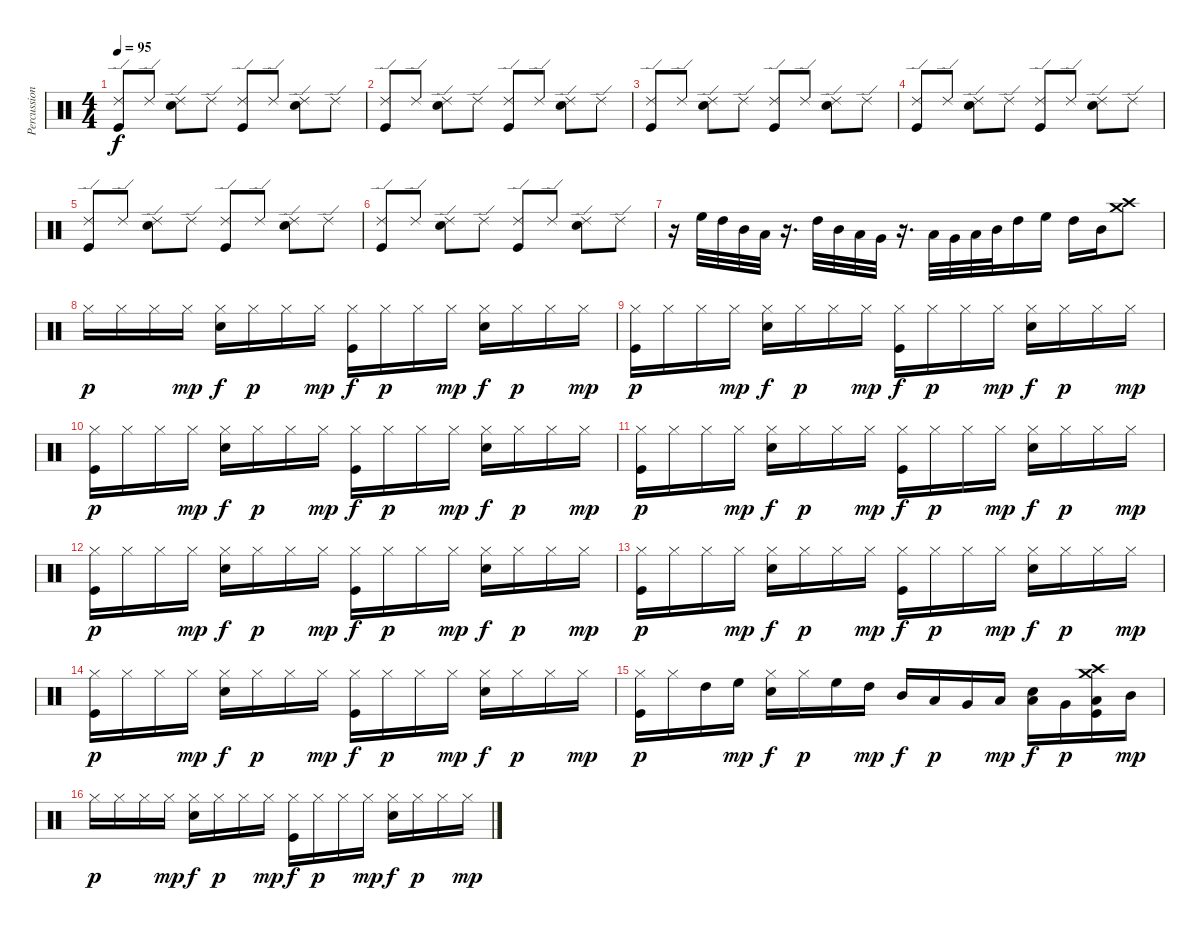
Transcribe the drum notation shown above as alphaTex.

\track ("Percussion" "Percussion") {instrument percussion}
\staff {score}
\articulation defaults
\ts (4 4)
\tempo 95
\clef neutral
\ks c
("Ride (edge) 2" "Kick (hit)").8{dy f} "Ride (edge) 2".8 ("Ride (edge) 2" "Electric Snare (hit)").8 "Ride (edge) 2".8 ("Ride (edge) 2" "Kick (hit)").8 "Ride (edge) 2".8 ("Ride (edge) 2" "Electric Snare (hit)").8 "Ride (edge) 2".8 |
("Ride (edge) 2" "Kick (hit)").8 "Ride (edge) 2".8 ("Ride (edge) 2" "Electric Snare (hit)").8 "Ride (edge) 2".8 ("Ride (edge) 2" "Kick (hit)").8 "Ride (edge) 2".8 ("Ride (edge) 2" "Electric Snare (hit)").8 "Ride (edge) 2".8 |
("Ride (edge) 2" "Kick (hit)").8 "Ride (edge) 2".8 ("Ride (edge) 2" "Electric Snare (hit)").8 "Ride (edge) 2".8 ("Ride (edge) 2" "Kick (hit)").8 "Ride (edge) 2".8 ("Ride (edge) 2" "Electric Snare (hit)").8 "Ride (edge) 2".8 |
("Ride (edge) 2" "Kick (hit)").8 "Ride (edge) 2".8 ("Ride (edge) 2" "Electric Snare (hit)").8 "Ride (edge) 2".8 ("Ride (edge) 2" "Kick (hit)").8 "Ride (edge) 2".8 ("Ride (edge) 2" "Electric Snare (hit)").8 "Ride (edge) 2".8 |
("Ride (edge) 2" "Kick (hit)").8 "Ride (edge) 2".8 ("Ride (edge) 2" "Electric Snare (hit)").8 "Ride (edge) 2".8 ("Ride (edge) 2" "Kick (hit)").8 "Ride (edge) 2".8 ("Ride (edge) 2" "Electric Snare (hit)").8 "Ride (edge) 2".8 |
("Ride (edge) 2" "Kick (hit)").8 "Ride (edge) 2".8 ("Ride (edge) 2" "Electric Snare (hit)").8 "Ride (edge) 2".8 ("Ride (edge) 2" "Kick (hit)").8 "Ride (edge) 2".8 ("Ride (edge) 2" "Electric Snare (hit)").8 "Ride (edge) 2".8 |
r.16 "High Floor Tom (hit)".32 "High Tom (hit)".32 "Mid Tom (hit)".32 "Low Tom (hit)".32 r.16{d} "High Tom (hit)".32 "Mid Tom (hit)".32 "Low Tom (hit)".32 "Very Low Tom (hit)".32 r.16{d} "Low Floor Tom (hit)".32 "Very Low Tom (hit)".32 "Low Tom (hit)".32 "Mid Tom (hit)".32 "High Tom (hit)".16 "High Floor Tom (hit)".16 "High Tom (hit)".16 "Mid Tom (hit)".16 ("Crash medium (hit)" "Crash high (hit)").8 |
"Hi-Hat (closed)".16{dy p} "Hi-Hat (closed)".16 "Hi-Hat (closed)".16 "Hi-Hat (closed)".16{dy mp} ("Hi-Hat (closed)" "Snare (hit) 2").16{dy f} "Hi-Hat (closed)".16{dy p} "Hi-Hat (closed)".16 "Hi-Hat (closed)".16{dy mp} ("Hi-Hat (closed)" "Kick (hit)").16{dy f} "Hi-Hat (closed)".16{dy p} "Hi-Hat (closed)".16 "Hi-Hat (closed)".16{dy mp} ("Hi-Hat (closed)" "Snare (hit) 2").16{dy f} "Hi-Hat (closed)".16{dy p} "Hi-Hat (closed)".16 "Hi-Hat (closed)".16{dy mp} |
("Hi-Hat (closed)" "Kick (hit)").16{dy p} "Hi-Hat (closed)".16 "Hi-Hat (closed)".16 "Hi-Hat (closed)".16{dy mp} ("Hi-Hat (closed)" "Snare (hit) 2").16{dy f} "Hi-Hat (closed)".16{dy p} "Hi-Hat (closed)".16 "Hi-Hat (closed)".16{dy mp} ("Hi-Hat (closed)" "Kick (hit)").16{dy f} "Hi-Hat (closed)".16{dy p} "Hi-Hat (closed)".16 "Hi-Hat (closed)".16{dy mp} ("Hi-Hat (closed)" "Snare (hit) 2").16{dy f} "Hi-Hat (closed)".16{dy p} "Hi-Hat (closed)".16 "Hi-Hat (closed)".16{dy mp} |
("Hi-Hat (closed)" "Kick (hit)").16{dy p} "Hi-Hat (closed)".16 "Hi-Hat (closed)".16 "Hi-Hat (closed)".16{dy mp} ("Hi-Hat (closed)" "Snare (hit) 2").16{dy f} "Hi-Hat (closed)".16{dy p} "Hi-Hat (closed)".16 "Hi-Hat (closed)".16{dy mp} ("Hi-Hat (closed)" "Kick (hit)").16{dy f} "Hi-Hat (closed)".16{dy p} "Hi-Hat (closed)".16 "Hi-Hat (closed)".16{dy mp} ("Hi-Hat (closed)" "Snare (hit) 2").16{dy f} "Hi-Hat (closed)".16{dy p} "Hi-Hat (closed)".16 "Hi-Hat (closed)".16{dy mp} |
("Hi-Hat (closed)" "Kick (hit)").16{dy p} "Hi-Hat (closed)".16 "Hi-Hat (closed)".16 "Hi-Hat (closed)".16{dy mp} ("Hi-Hat (closed)" "Snare (hit) 2").16{dy f} "Hi-Hat (closed)".16{dy p} "Hi-Hat (closed)".16 "Hi-Hat (closed)".16{dy mp} ("Hi-Hat (closed)" "Kick (hit)").16{dy f} "Hi-Hat (closed)".16{dy p} "Hi-Hat (closed)".16 "Hi-Hat (closed)".16{dy mp} ("Hi-Hat (closed)" "Snare (hit) 2").16{dy f} "Hi-Hat (closed)".16{dy p} "Hi-Hat (closed)".16 "Hi-Hat (closed)".16{dy mp} |
("Hi-Hat (closed)" "Kick (hit)").16{dy p} "Hi-Hat (closed)".16 "Hi-Hat (closed)".16 "Hi-Hat (closed)".16{dy mp} ("Hi-Hat (closed)" "Snare (hit) 2").16{dy f} "Hi-Hat (closed)".16{dy p} "Hi-Hat (closed)".16 "Hi-Hat (closed)".16{dy mp} ("Hi-Hat (closed)" "Kick (hit)").16{dy f} "Hi-Hat (closed)".16{dy p} "Hi-Hat (closed)".16 "Hi-Hat (closed)".16{dy mp} ("Hi-Hat (closed)" "Snare (hit) 2").16{dy f} "Hi-Hat (closed)".16{dy p} "Hi-Hat (closed)".16 "Hi-Hat (closed)".16{dy mp} |
("Hi-Hat (closed)" "Kick (hit)").16{dy p} "Hi-Hat (closed)".16 "Hi-Hat (closed)".16 "Hi-Hat (closed)".16{dy mp} ("Hi-Hat (closed)" "Snare (hit) 2").16{dy f} "Hi-Hat (closed)".16{dy p} "Hi-Hat (closed)".16 "Hi-Hat (closed)".16{dy mp} ("Hi-Hat (closed)" "Kick (hit)").16{dy f} "Hi-Hat (closed)".16{dy p} "Hi-Hat (closed)".16 "Hi-Hat (closed)".16{dy mp} ("Hi-Hat (closed)" "Snare (hit) 2").16{dy f} "Hi-Hat (closed)".16{dy p} "Hi-Hat (closed)".16 "Hi-Hat (closed)".16{dy mp} |
("Hi-Hat (closed)" "Kick (hit)").16{dy p} "Hi-Hat (closed)".16 "Hi-Hat (closed)".16 "Hi-Hat (closed)".16{dy mp} ("Hi-Hat (closed)" "Snare (hit) 2").16{dy f} "Hi-Hat (closed)".16{dy p} "Hi-Hat (closed)".16 "Hi-Hat (closed)".16{dy mp} ("Hi-Hat (closed)" "Kick (hit)").16{dy f} "Hi-Hat (closed)".16{dy p} "Hi-Hat (closed)".16 "Hi-Hat (closed)".16{dy mp} ("Hi-Hat (closed)" "Snare (hit) 2").16{dy f} "Hi-Hat (closed)".16{dy p} "Hi-Hat (closed)".16 "Hi-Hat (closed)".16{dy mp} |
("Hi-Hat (closed)" "Kick (hit)").16{dy p} "Hi-Hat (closed)".16 "High Tom (hit)".16 "High Floor Tom (hit)".16{dy mp} ("Hi-Hat (closed)" "Snare (hit) 2").16{dy f} "Hi-Hat (closed)".16{dy p} "High Floor Tom (hit)".16 "High Tom (hit)".16{dy mp} "Mid Tom (hit)".16{dy f} "Low Tom (hit)".16{dy p} "Very Low Tom (hit)".16 "Low Floor Tom (hit)".16{dy mp} ("Low Floor Tom (hit)" "Snare (hit) 2").16{dy f} "Very Low Tom (hit)".16{dy p} ("Low Tom (hit)" "Crash medium (hit)" "Crash high (hit)" "Kick (hit)").16 "Mid Tom (hit)".16{dy mp} |
"Hi-Hat (closed)".16{dy p} "Hi-Hat (closed)".16 "Hi-Hat (closed)".16 "Hi-Hat (closed)".16{dy mp} ("Hi-Hat (closed)" "Snare (hit) 2").16{dy f} "Hi-Hat (closed)".16{dy p} "Hi-Hat (closed)".16 "Hi-Hat (closed)".16{dy mp} ("Hi-Hat (closed)" "Kick (hit)").16{dy f} "Hi-Hat (closed)".16{dy p} "Hi-Hat (closed)".16 "Hi-Hat (closed)".16{dy mp} ("Hi-Hat (closed)" "Snare (hit) 2").16{dy f} "Hi-Hat (closed)".16{dy p} "Hi-Hat (closed)".16 "Hi-Hat (closed)".16{dy mp}
